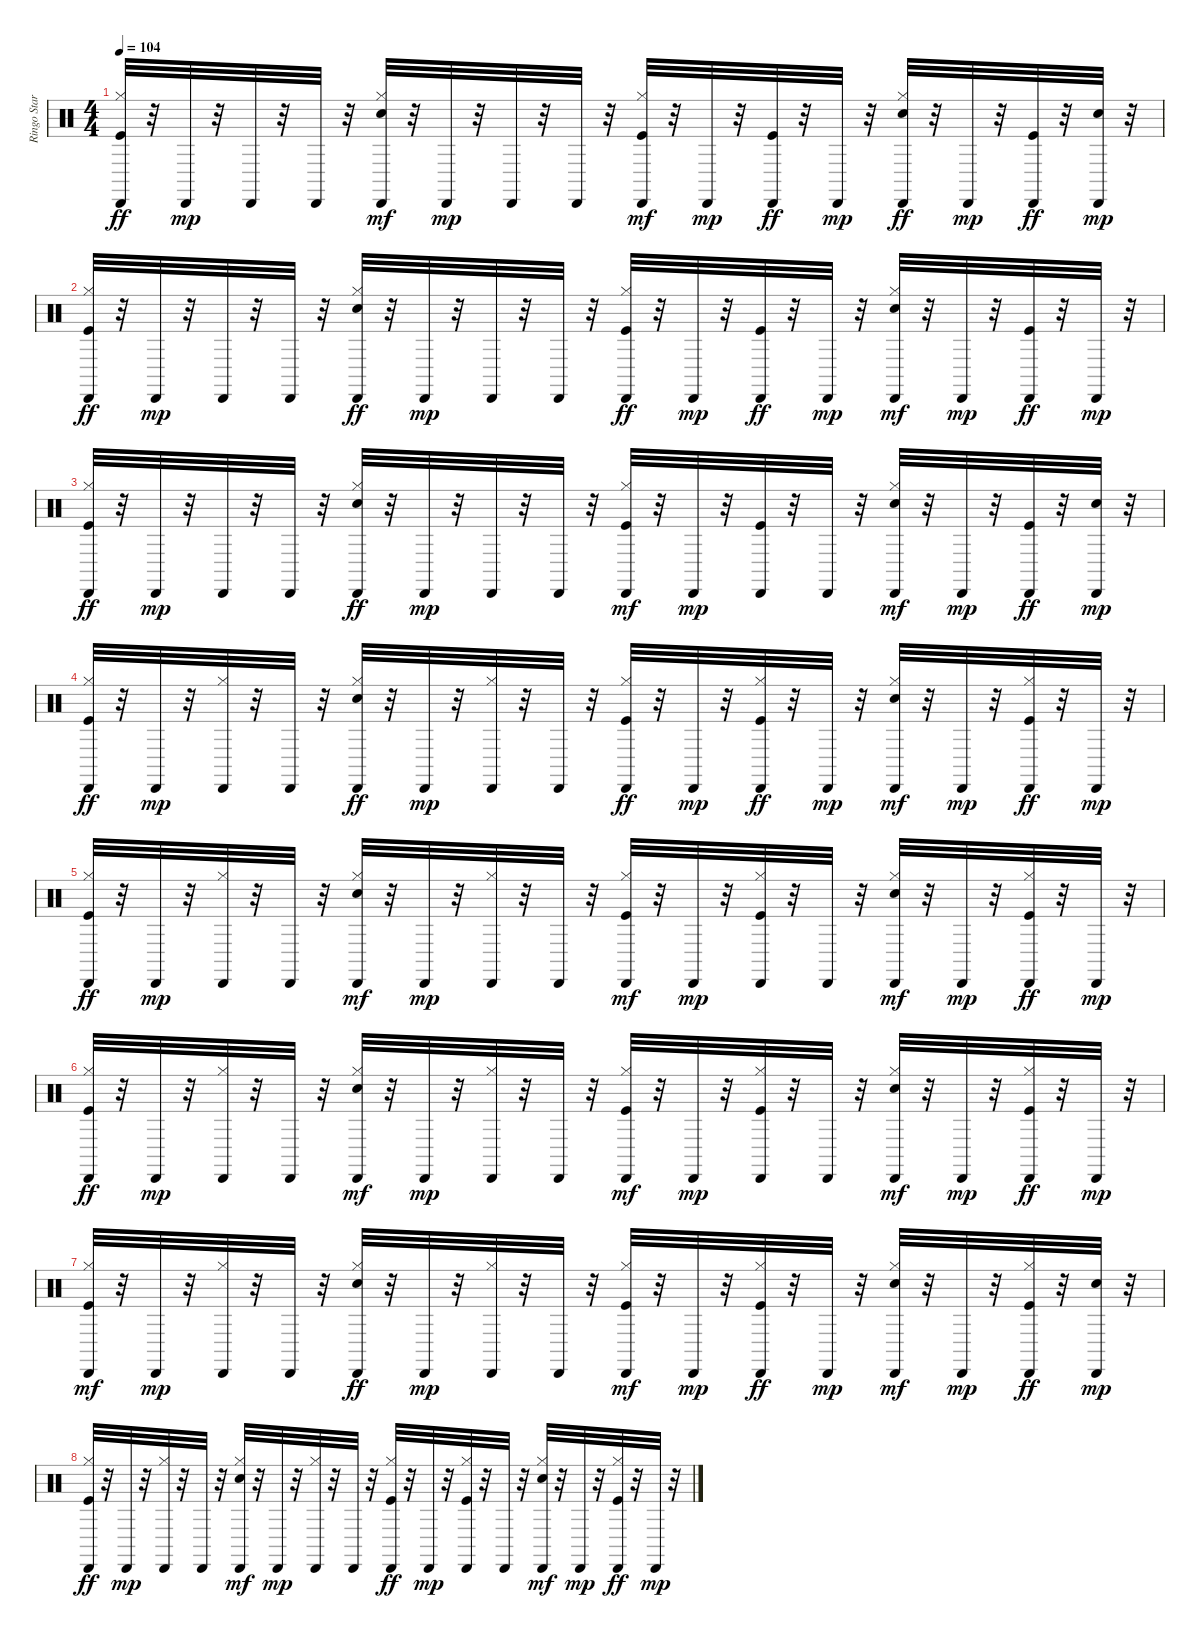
\track ("Ringo Starr - Drums" "Ringo Star") {instrument percussion}
\staff {score}
\articulation defaults
\ts (4 4)
\tempo 104
\clef neutral
\ks c
("Hi-Hat (closed)" "Cabasa (hit)" "Kick (hit)").32{dy ff} r.32 "Cabasa (hit)".32{dy mp} r.32 "Cabasa (hit)".32 r.32 "Cabasa (hit)".32 r.32 ("Hi-Hat (closed)" "Snare (hit) 2" "Cabasa (hit)").32{dy mf} r.32 "Cabasa (hit)".32{dy mp} r.32 "Cabasa (hit)".32 r.32 "Cabasa (hit)".32 r.32 ("Hi-Hat (closed)" "Kick (hit)" "Cabasa (hit)").32{dy mf} r.32 "Cabasa (hit)".32{dy mp} r.32 ("Cabasa (hit)" "Kick (hit)").32{dy ff} r.32 "Cabasa (hit)".32{dy mp} r.32 ("Hi-Hat (closed)" "Cabasa (hit)" "Snare (hit) 2").32{dy ff} r.32 "Cabasa (hit)".32{dy mp} r.32 ("Cabasa (hit)" "Kick (hit)").32{dy ff} r.32 ("Snare (hit) 2" "Cabasa (hit)").32{dy mp} r.32 |
("Hi-Hat (closed)" "Cabasa (hit)" "Kick (hit)").32{dy ff} r.32 "Cabasa (hit)".32{dy mp} r.32 "Cabasa (hit)".32 r.32 "Cabasa (hit)".32 r.32 ("Hi-Hat (closed)" "Cabasa (hit)" "Snare (hit) 2").32{dy ff} r.32 "Cabasa (hit)".32{dy mp} r.32 "Cabasa (hit)".32 r.32 "Cabasa (hit)".32 r.32 ("Hi-Hat (closed)" "Cabasa (hit)" "Kick (hit)").32{dy ff} r.32 "Cabasa (hit)".32{dy mp} r.32 ("Cabasa (hit)" "Kick (hit)").32{dy ff} r.32 "Cabasa (hit)".32{dy mp} r.32 ("Hi-Hat (closed)" "Snare (hit) 2" "Cabasa (hit)").32{dy mf} r.32 "Cabasa (hit)".32{dy mp} r.32 ("Cabasa (hit)" "Kick (hit)").32{dy ff} r.32 "Cabasa (hit)".32{dy mp} r.32 |
("Hi-Hat (closed)" "Cabasa (hit)" "Kick (hit)").32{dy ff} r.32 "Cabasa (hit)".32{dy mp} r.32 "Cabasa (hit)".32 r.32 "Cabasa (hit)".32 r.32 ("Hi-Hat (closed)" "Cabasa (hit)" "Snare (hit) 2").32{dy ff} r.32 "Cabasa (hit)".32{dy mp} r.32 "Cabasa (hit)".32 r.32 "Cabasa (hit)".32 r.32 ("Hi-Hat (closed)" "Kick (hit)" "Cabasa (hit)").32{dy mf} r.32 "Cabasa (hit)".32{dy mp} r.32 ("Kick (hit)" "Cabasa (hit)").32 r.32 "Cabasa (hit)".32 r.32 ("Hi-Hat (closed)" "Snare (hit) 2" "Cabasa (hit)").32{dy mf} r.32 "Cabasa (hit)".32{dy mp} r.32 ("Cabasa (hit)" "Kick (hit)").32{dy ff} r.32 ("Cabasa (hit)" "Snare (hit) 2").32{dy mp} r.32 |
("Hi-Hat (closed)" "Cabasa (hit)" "Kick (hit)").32{dy ff} r.32 "Cabasa (hit)".32{dy mp} r.32 ("Hi-Hat (closed)" "Cabasa (hit)").32 r.32 "Cabasa (hit)".32 r.32 ("Hi-Hat (closed)" "Cabasa (hit)" "Snare (hit) 2").32{dy ff} r.32 "Cabasa (hit)".32{dy mp} r.32 ("Hi-Hat (closed)" "Cabasa (hit)").32 r.32 "Cabasa (hit)".32 r.32 ("Hi-Hat (closed)" "Cabasa (hit)" "Kick (hit)").32{dy ff} r.32 "Cabasa (hit)".32{dy mp} r.32 ("Hi-Hat (closed)" "Cabasa (hit)" "Kick (hit)").32{dy ff} r.32 "Cabasa (hit)".32{dy mp} r.32 ("Hi-Hat (closed)" "Snare (hit) 2" "Cabasa (hit)").32{dy mf} r.32 "Cabasa (hit)".32{dy mp} r.32 ("Hi-Hat (closed)" "Cabasa (hit)" "Kick (hit)").32{dy ff} r.32 "Cabasa (hit)".32{dy mp} r.32 |
("Hi-Hat (closed)" "Cabasa (hit)" "Kick (hit)").32{dy ff} r.32 "Cabasa (hit)".32{dy mp} r.32 ("Hi-Hat (closed)" "Cabasa (hit)").32 r.32 "Cabasa (hit)".32 r.32 ("Hi-Hat (closed)" "Snare (hit) 2" "Cabasa (hit)").32{dy mf} r.32 "Cabasa (hit)".32{dy mp} r.32 ("Hi-Hat (closed)" "Cabasa (hit)").32 r.32 "Cabasa (hit)".32 r.32 ("Hi-Hat (closed)" "Kick (hit)" "Cabasa (hit)").32{dy mf} r.32 "Cabasa (hit)".32{dy mp} r.32 ("Hi-Hat (closed)" "Kick (hit)" "Cabasa (hit)").32 r.32 "Cabasa (hit)".32 r.32 ("Hi-Hat (closed)" "Snare (hit) 2" "Cabasa (hit)").32{dy mf} r.32 "Cabasa (hit)".32{dy mp} r.32 ("Hi-Hat (closed)" "Cabasa (hit)" "Kick (hit)").32{dy ff} r.32 "Cabasa (hit)".32{dy mp} r.32 |
("Hi-Hat (closed)" "Cabasa (hit)" "Kick (hit)").32{dy ff} r.32 "Cabasa (hit)".32{dy mp} r.32 ("Hi-Hat (closed)" "Cabasa (hit)").32 r.32 "Cabasa (hit)".32 r.32 ("Hi-Hat (closed)" "Snare (hit) 2" "Cabasa (hit)").32{dy mf} r.32 "Cabasa (hit)".32{dy mp} r.32 ("Hi-Hat (closed)" "Cabasa (hit)").32 r.32 "Cabasa (hit)".32 r.32 ("Hi-Hat (closed)" "Kick (hit)" "Cabasa (hit)").32{dy mf} r.32 "Cabasa (hit)".32{dy mp} r.32 ("Hi-Hat (closed)" "Kick (hit)" "Cabasa (hit)").32 r.32 "Cabasa (hit)".32 r.32 ("Hi-Hat (closed)" "Snare (hit) 2" "Cabasa (hit)").32{dy mf} r.32 "Cabasa (hit)".32{dy mp} r.32 ("Hi-Hat (closed)" "Cabasa (hit)" "Kick (hit)").32{dy ff} r.32 "Cabasa (hit)".32{dy mp} r.32 |
("Hi-Hat (closed)" "Kick (hit)" "Cabasa (hit)").32{dy mf} r.32 "Cabasa (hit)".32{dy mp} r.32 ("Hi-Hat (closed)" "Cabasa (hit)").32 r.32 "Cabasa (hit)".32 r.32 ("Hi-Hat (closed)" "Cabasa (hit)" "Snare (hit) 2").32{dy ff} r.32 "Cabasa (hit)".32{dy mp} r.32 ("Hi-Hat (closed)" "Cabasa (hit)").32 r.32 "Cabasa (hit)".32 r.32 ("Hi-Hat (closed)" "Kick (hit)" "Cabasa (hit)").32{dy mf} r.32 "Cabasa (hit)".32{dy mp} r.32 ("Hi-Hat (closed)" "Cabasa (hit)" "Kick (hit)").32{dy ff} r.32 "Cabasa (hit)".32{dy mp} r.32 ("Hi-Hat (closed)" "Snare (hit) 2" "Cabasa (hit)").32{dy mf} r.32 "Cabasa (hit)".32{dy mp} r.32 ("Hi-Hat (closed)" "Cabasa (hit)" "Kick (hit)").32{dy ff} r.32 ("Snare (hit) 2" "Cabasa (hit)").32{dy mp} r.32 |
("Hi-Hat (closed)" "Cabasa (hit)" "Kick (hit)").32{dy ff} r.32 "Cabasa (hit)".32{dy mp} r.32 ("Hi-Hat (closed)" "Cabasa (hit)").32 r.32 "Cabasa (hit)".32 r.32 ("Hi-Hat (closed)" "Snare (hit) 2" "Cabasa (hit)").32{dy mf} r.32 "Cabasa (hit)".32{dy mp} r.32 ("Hi-Hat (closed)" "Cabasa (hit)").32 r.32 "Cabasa (hit)".32 r.32 ("Hi-Hat (closed)" "Cabasa (hit)" "Kick (hit)").32{dy ff} r.32 "Cabasa (hit)".32{dy mp} r.32 ("Hi-Hat (closed)" "Kick (hit)" "Cabasa (hit)").32 r.32 "Cabasa (hit)".32 r.32 ("Hi-Hat (closed)" "Snare (hit) 2" "Cabasa (hit)").32{dy mf} r.32 "Cabasa (hit)".32{dy mp} r.32 ("Hi-Hat (closed)" "Cabasa (hit)" "Kick (hit)").32{dy ff} r.32 "Cabasa (hit)".32{dy mp} r.32
